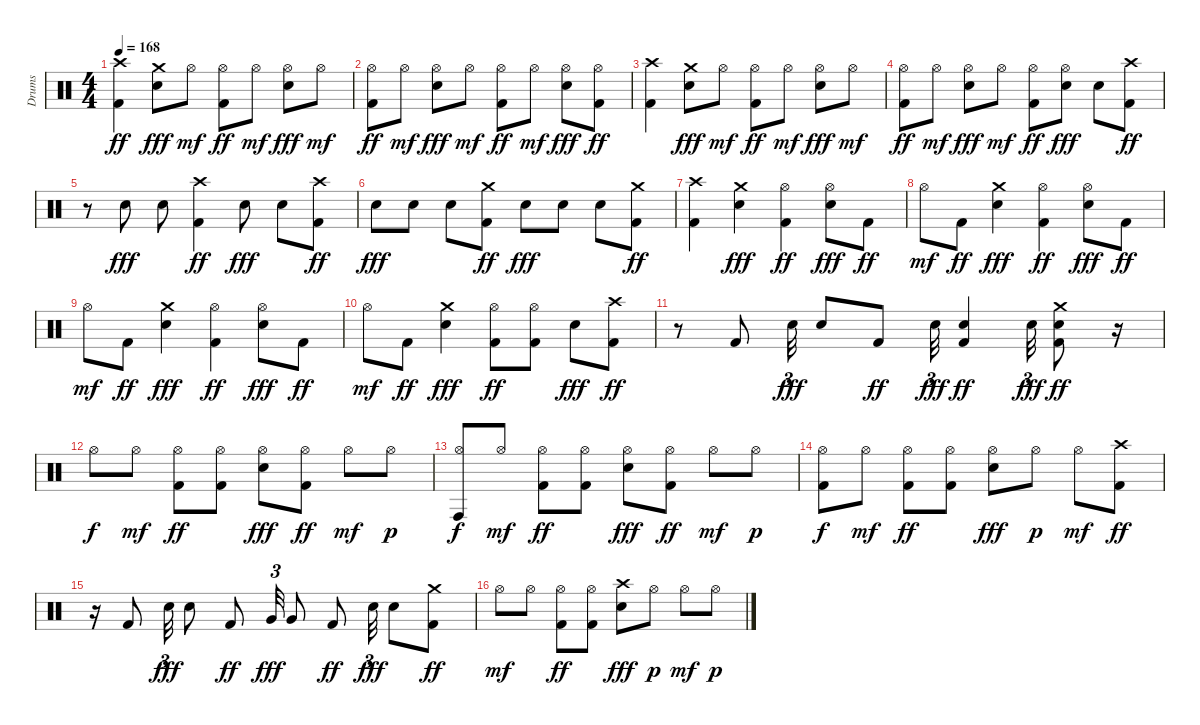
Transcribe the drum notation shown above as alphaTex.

\track ("Drums" "Drums") {instrument percussion}
\staff {score}
\articulation defaults
\ts (4 4)
\tempo 168
\clef neutral
\ks c
("Kick (hit) 2" "Crash high (hit)").4{dy ff} ("Snare (hit) 2" "Crash medium (hit)").8{dy fff} "Hi-Hat (open)".8{dy mf} ("Hi-Hat (open)" "Kick (hit) 2").8{dy ff} "Hi-Hat (open)".8{dy mf} ("Hi-Hat (open)" "Snare (hit) 2").8{dy fff} "Hi-Hat (open)".8{dy mf} |
("Hi-Hat (open)" "Kick (hit) 2").8{dy ff} "Hi-Hat (open)".8{dy mf} ("Hi-Hat (open)" "Snare (hit) 2").8{dy fff} "Hi-Hat (open)".8{dy mf} ("Hi-Hat (open)" "Kick (hit) 2").8{dy ff} "Hi-Hat (open)".8{dy mf} ("Hi-Hat (open)" "Snare (hit) 2").8{dy fff} ("Hi-Hat (open)" "Kick (hit) 2").8{dy ff} |
("Kick (hit) 2" "Crash high (hit)").4 ("Snare (hit) 2" "Crash medium (hit)").8{dy fff} "Hi-Hat (open)".8{dy mf} ("Hi-Hat (open)" "Kick (hit) 2").8{dy ff} "Hi-Hat (open)".8{dy mf} ("Hi-Hat (open)" "Snare (hit) 2").8{dy fff} "Hi-Hat (open)".8{dy mf} |
("Hi-Hat (open)" "Kick (hit) 2").8{dy ff} "Hi-Hat (open)".8{dy mf} ("Hi-Hat (open)" "Snare (hit) 2").8{dy fff} "Hi-Hat (open)".8{dy mf} ("Hi-Hat (open)" "Kick (hit) 2").8{dy ff} ("Hi-Hat (open)" "Snare (hit) 2").8{dy fff} "Electric Snare (hit)".8 ("Kick (hit) 2" "Crash high (hit)").8{dy ff} |
r.8 "Snare (hit) 2".8{dy fff} "Snare (hit) 2".8 ("Kick (hit) 2" "Crash high (hit)").4{dy ff} "Snare (hit) 2".8{dy fff} "Snare (hit) 2".8 ("Kick (hit) 2" "Crash high (hit)").8{dy ff} |
"Snare (hit) 2".8{dy fff} "Snare (hit) 2".8 "Snare (hit) 2".8 ("Kick (hit) 2" "Crash medium (hit)").8{dy ff} "Snare (hit) 2".8{dy fff} "Snare (hit) 2".8 "Snare (hit) 2".8 ("Kick (hit) 2" "Crash medium (hit)").8{dy ff} |
("Kick (hit) 2" "Crash high (hit)").4 ("Snare (hit) 2" "Crash medium (hit)").4{dy fff} ("Hi-Hat (open)" "Kick (hit) 2").4{dy ff} ("Hi-Hat (open)" "Snare (hit) 2").8{dy fff} "Kick (hit) 2".8{dy ff} |
"Hi-Hat (open)".8{dy mf} "Kick (hit) 2".8{dy ff} ("Snare (hit) 2" "Crash medium (hit)").4{dy fff} ("Hi-Hat (open)" "Kick (hit) 2").4{dy ff} ("Hi-Hat (open)" "Snare (hit) 2").8{dy fff} "Kick (hit) 2".8{dy ff} |
"Hi-Hat (open)".8{dy mf} "Kick (hit) 2".8{dy ff} ("Snare (hit) 2" "Crash medium (hit)").4{dy fff} ("Hi-Hat (open)" "Kick (hit) 2").4{dy ff} ("Hi-Hat (open)" "Snare (hit) 2").8{dy fff} "Kick (hit) 2".8{dy ff} |
"Hi-Hat (open)".8{dy mf} "Kick (hit) 2".8{dy ff} ("Snare (hit) 2" "Crash medium (hit)").4{dy fff} ("Hi-Hat (open)" "Kick (hit) 2").8{dy ff} ("Hi-Hat (open)" "Kick (hit) 2").8 "Snare (hit) 2".8{dy fff} ("Kick (hit) 2" "Crash high (hit)").8{dy ff} |
r.8 "Kick (hit) 2".8 "Snare (hit) 2".32{tu (3 2) dy fff} "Snare (hit) 2".8 "Kick (hit) 2".8{dy ff} "Snare (hit) 2".32{tu (3 2) dy fff} ("Snare (hit) 2" "Kick (hit) 2").4{dy ff} "Snare (hit) 2".32{tu (3 2) dy fff} ("Snare (hit) 2" "Kick (hit) 2" "Crash medium (hit)").8{dy ff} r.16 |
"Hi-Hat (open)".8{dy f} "Hi-Hat (open)".8{dy mf} ("Hi-Hat (open)" "Kick (hit) 2").8{dy ff} ("Hi-Hat (open)" "Kick (hit) 2").8 ("Hi-Hat (open)" "Snare (hit) 2").8{dy fff} ("Hi-Hat (open)" "Kick (hit) 2").8{dy ff} "Hi-Hat (open)".8{dy mf} "Hi-Hat (open)".8{dy p} |
("Hi-Hat (open)" "Conga high (hit)").8{dy f} "Hi-Hat (open)".8{dy mf} ("Hi-Hat (open)" "Kick (hit) 2").8{dy ff} ("Hi-Hat (open)" "Kick (hit) 2").8 ("Hi-Hat (open)" "Snare (hit) 2").8{dy fff} ("Hi-Hat (open)" "Kick (hit) 2").8{dy ff} "Hi-Hat (open)".8{dy mf} "Hi-Hat (open)".8{dy p} |
("Hi-Hat (open)" "Kick (hit) 2").8{dy f} "Hi-Hat (open)".8{dy mf} ("Hi-Hat (open)" "Kick (hit) 2").8{dy ff} ("Hi-Hat (open)" "Kick (hit) 2").8 ("Hi-Hat (open)" "Snare (hit) 2").8{dy fff} "Hi-Hat (open)".8{dy p} "Hi-Hat (open)".8{dy mf} ("Kick (hit) 2" "Crash high (hit)").8{dy ff} |
r.16 "Kick (hit) 2".8 "Snare (hit) 2".32{tu (3 2) dy fff} "Snare (hit) 2".8 "Kick (hit) 2".8{dy ff} "Very Low Tom (hit)".32{tu (3 2) dy fff} "Very Low Tom (hit)".8 "Kick (hit) 2".8{dy ff} "Snare (hit) 2".32{tu (3 2) dy fff} "Snare (hit) 2".8 ("Kick (hit) 2" "Crash medium (hit)").8{dy ff} |
"Hi-Hat (open)".8{dy mf} "Hi-Hat (open)".8 ("Hi-Hat (open)" "Kick (hit) 2").8{dy ff} ("Hi-Hat (open)" "Kick (hit) 2").8 ("Snare (hit) 2" "Crash high (hit)").8{dy fff} "Hi-Hat (open)".8{dy p} "Hi-Hat (open)".8{dy mf} "Hi-Hat (open)".8{dy p}
